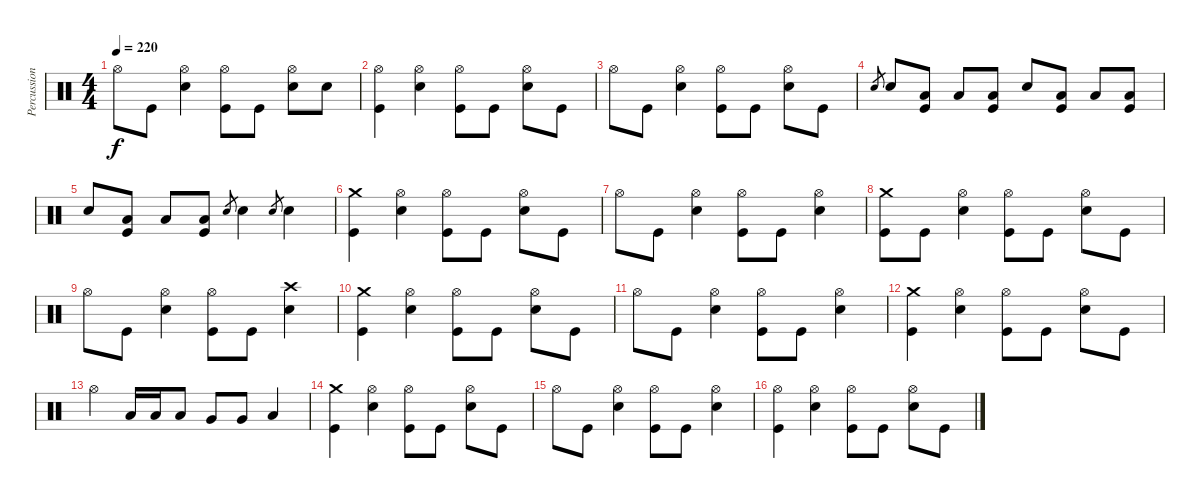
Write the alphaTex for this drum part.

\track ("Percussions" "Percussion") {instrument percussion}
\staff {score}
\articulation defaults
\ts (4 4)
\tempo 220
\clef neutral
\ks c "Hi-Hat (open)".8{dy f} "Kick (hit)".8
("Electric Snare (hit)" "Hi-Hat (open)").4 ("Kick (hit)" "Hi-Hat (open)").8 "Kick (hit)".8 ("Electric Snare (hit)" "Hi-Hat (open)").8 "Electric Snare (hit)".8 |
("Kick (hit)" "Hi-Hat (open)").4 ("Electric Snare (hit)" "Hi-Hat (open)").4 ("Kick (hit)" "Hi-Hat (open)").8 "Kick (hit)".8 ("Electric Snare (hit)" "Hi-Hat (open)").8 "Kick (hit)".8 |
"Hi-Hat (open)".8 "Kick (hit)".8 ("Electric Snare (hit)" "Hi-Hat (open)").4 ("Kick (hit)" "Hi-Hat (open)").8 "Kick (hit)".8 ("Electric Snare (hit)" "Hi-Hat (open)").8 "Kick (hit)".8 |
"Electric Snare (hit)".8{gr} "Electric Snare (hit)".8 ("Kick (hit)" "Low Tom (hit)").8 "Low Tom (hit)".8 ("Kick (hit)" "Low Tom (hit)").8 "Electric Snare (hit)".8 ("Kick (hit)" "Low Tom (hit)").8 "Low Tom (hit)".8 ("Kick (hit)" "Low Tom (hit)").8 |
"Electric Snare (hit)".8 ("Kick (hit)" "Low Tom (hit)").8 "Low Tom (hit)".8 ("Kick (hit)" "Low Tom (hit)").8 "Electric Snare (hit)".8{gr} "Electric Snare (hit)".4 "Electric Snare (hit)".8{gr} "Electric Snare (hit)".4 |
("Kick (hit)" "Crash medium (hit)").4 ("Electric Snare (hit)" "Hi-Hat (open)").4 ("Kick (hit)" "Hi-Hat (open)").8 "Kick (hit)".8 ("Electric Snare (hit)" "Hi-Hat (open)").8 "Kick (hit)".8 |
"Hi-Hat (open)".8 "Kick (hit)".8 ("Electric Snare (hit)" "Hi-Hat (open)").4 ("Kick (hit)" "Hi-Hat (open)").8 "Kick (hit)".8 ("Electric Snare (hit)" "Hi-Hat (open)").4 |
("Kick (hit)" "Crash medium (hit)").8 "Kick (hit)".8 ("Electric Snare (hit)" "Hi-Hat (open)").4 ("Kick (hit)" "Hi-Hat (open)").8 "Kick (hit)".8 ("Electric Snare (hit)" "Hi-Hat (open)").8 "Kick (hit)".8 |
"Hi-Hat (open)".8 "Kick (hit)".8 ("Electric Snare (hit)" "Hi-Hat (open)").4 ("Kick (hit)" "Hi-Hat (open)").8 "Kick (hit)".8 ("Electric Snare (hit)" "Crash high (hit)").4 |
("Kick (hit)" "Crash medium (hit)").4 ("Electric Snare (hit)" "Hi-Hat (open)").4 ("Kick (hit)" "Hi-Hat (open)").8 "Kick (hit)".8 ("Electric Snare (hit)" "Hi-Hat (open)").8 "Kick (hit)".8 |
"Hi-Hat (open)".8 "Kick (hit)".8 ("Electric Snare (hit)" "Hi-Hat (open)").4 ("Kick (hit)" "Hi-Hat (open)").8 "Kick (hit)".8 ("Electric Snare (hit)" "Hi-Hat (open)").4 |
("Kick (hit)" "Crash medium (hit)").4 ("Electric Snare (hit)" "Hi-Hat (open)").4 ("Kick (hit)" "Hi-Hat (open)").8 "Kick (hit)".8 ("Electric Snare (hit)" "Hi-Hat (open)").8 "Kick (hit)".8 |
"Hi-Hat (open)".4 "Low Tom (hit)".16 "Low Tom (hit)".16 "Low Tom (hit)".8 "Very Low Tom (hit)".8 "Very Low Tom (hit)".8 "Low Floor Tom (hit)".4 |
("Kick (hit)" "Crash medium (hit)").4 ("Electric Snare (hit)" "Hi-Hat (open)").4 ("Kick (hit)" "Hi-Hat (open)").8 "Kick (hit)".8 ("Electric Snare (hit)" "Hi-Hat (open)").8 "Kick (hit)".8 |
"Hi-Hat (open)".8 "Kick (hit)".8 ("Electric Snare (hit)" "Hi-Hat (open)").4 ("Kick (hit)" "Hi-Hat (open)").8 "Kick (hit)".8 ("Electric Snare (hit)" "Hi-Hat (open)").4 |
("Kick (hit)" "Hi-Hat (open)").4 ("Electric Snare (hit)" "Hi-Hat (open)").4 ("Kick (hit)" "Hi-Hat (open)").8 "Kick (hit)".8 ("Electric Snare (hit)" "Hi-Hat (open)").8 "Kick (hit)".8
